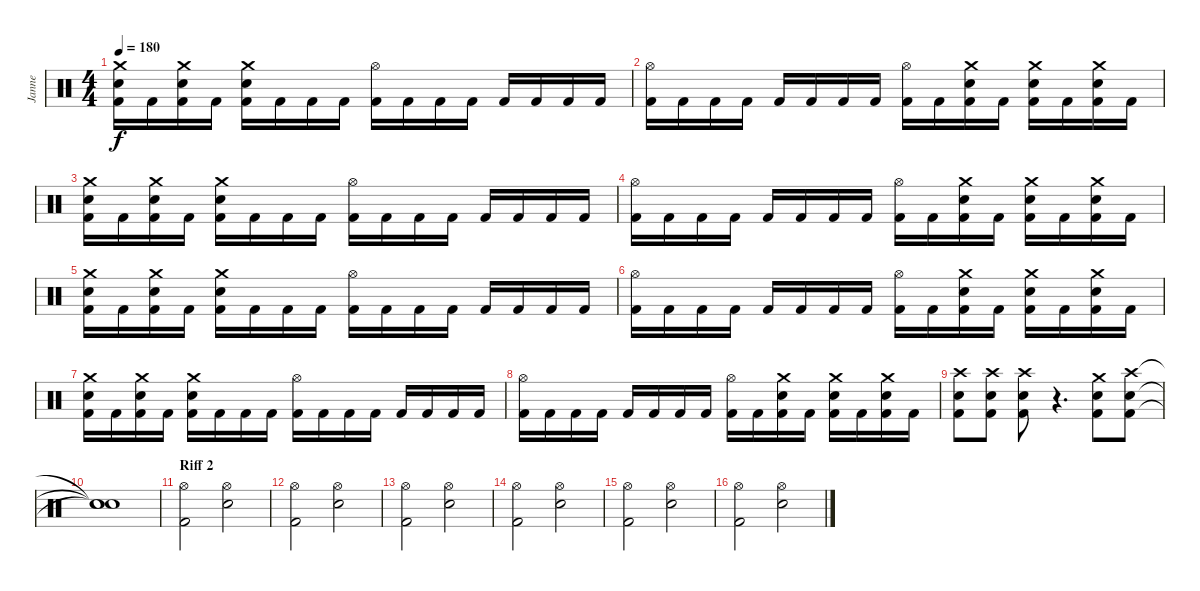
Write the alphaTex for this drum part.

\track ("Janne" "Janne") {instrument percussion}
\staff {score}
\articulation defaults
\ts (4 4)
\tempo 180
\clef neutral
\ks c
("Crash medium (hit)" "Electric Snare (hit)" "Kick (hit) 2").16{dy f} "Kick (hit) 2".16 ("Crash medium (hit)" "Electric Snare (hit)" "Kick (hit) 2").16 "Kick (hit) 2".16 ("Crash medium (hit)" "Electric Snare (hit)" "Kick (hit) 2").16 "Kick (hit) 2".16 "Kick (hit) 2".16 "Kick (hit) 2".16 ("Hi-Hat (open)" "Kick (hit) 2").16 "Kick (hit) 2".16 "Kick (hit) 2".16 "Kick (hit) 2".16 "Kick (hit) 2".16 "Kick (hit) 2".16 "Kick (hit) 2".16 "Kick (hit) 2".16 |
("Hi-Hat (open)" "Kick (hit) 2").16 "Kick (hit) 2".16 "Kick (hit) 2".16 "Kick (hit) 2".16 "Kick (hit) 2".16 "Kick (hit) 2".16 "Kick (hit) 2".16 "Kick (hit) 2".16 ("Hi-Hat (open)" "Kick (hit) 2").16 "Kick (hit) 2".16 ("Crash medium (hit)" "Electric Snare (hit)" "Kick (hit) 2").16 "Kick (hit) 2".16 ("Crash medium (hit)" "Electric Snare (hit)" "Kick (hit) 2").16 "Kick (hit) 2".16 ("Crash medium (hit)" "Electric Snare (hit)" "Kick (hit) 2").16 "Kick (hit) 2".16 |
("Crash medium (hit)" "Electric Snare (hit)" "Kick (hit) 2").16 "Kick (hit) 2".16 ("Crash medium (hit)" "Electric Snare (hit)" "Kick (hit) 2").16 "Kick (hit) 2".16 ("Crash medium (hit)" "Electric Snare (hit)" "Kick (hit) 2").16 "Kick (hit) 2".16 "Kick (hit) 2".16 "Kick (hit) 2".16 ("Hi-Hat (open)" "Kick (hit) 2").16 "Kick (hit) 2".16 "Kick (hit) 2".16 "Kick (hit) 2".16 "Kick (hit) 2".16 "Kick (hit) 2".16 "Kick (hit) 2".16 "Kick (hit) 2".16 |
("Hi-Hat (open)" "Kick (hit) 2").16 "Kick (hit) 2".16 "Kick (hit) 2".16 "Kick (hit) 2".16 "Kick (hit) 2".16 "Kick (hit) 2".16 "Kick (hit) 2".16 "Kick (hit) 2".16 ("Hi-Hat (open)" "Kick (hit) 2").16 "Kick (hit) 2".16 ("Crash medium (hit)" "Electric Snare (hit)" "Kick (hit) 2").16 "Kick (hit) 2".16 ("Crash medium (hit)" "Electric Snare (hit)" "Kick (hit) 2").16 "Kick (hit) 2".16 ("Crash medium (hit)" "Electric Snare (hit)" "Kick (hit) 2").16 "Kick (hit) 2".16 |
("Crash medium (hit)" "Electric Snare (hit)" "Kick (hit) 2").16 "Kick (hit) 2".16 ("Crash medium (hit)" "Electric Snare (hit)" "Kick (hit) 2").16 "Kick (hit) 2".16 ("Crash medium (hit)" "Electric Snare (hit)" "Kick (hit) 2").16 "Kick (hit) 2".16 "Kick (hit) 2".16 "Kick (hit) 2".16 ("Hi-Hat (open)" "Kick (hit) 2").16 "Kick (hit) 2".16 "Kick (hit) 2".16 "Kick (hit) 2".16 "Kick (hit) 2".16 "Kick (hit) 2".16 "Kick (hit) 2".16 "Kick (hit) 2".16 |
("Hi-Hat (open)" "Kick (hit) 2").16 "Kick (hit) 2".16 "Kick (hit) 2".16 "Kick (hit) 2".16 "Kick (hit) 2".16 "Kick (hit) 2".16 "Kick (hit) 2".16 "Kick (hit) 2".16 ("Hi-Hat (open)" "Kick (hit) 2").16 "Kick (hit) 2".16 ("Crash medium (hit)" "Electric Snare (hit)" "Kick (hit) 2").16 "Kick (hit) 2".16 ("Crash medium (hit)" "Electric Snare (hit)" "Kick (hit) 2").16 "Kick (hit) 2".16 ("Crash medium (hit)" "Electric Snare (hit)" "Kick (hit) 2").16 "Kick (hit) 2".16 |
("Crash medium (hit)" "Electric Snare (hit)" "Kick (hit) 2").16 "Kick (hit) 2".16 ("Crash medium (hit)" "Electric Snare (hit)" "Kick (hit) 2").16 "Kick (hit) 2".16 ("Crash medium (hit)" "Electric Snare (hit)" "Kick (hit) 2").16 "Kick (hit) 2".16 "Kick (hit) 2".16 "Kick (hit) 2".16 ("Hi-Hat (open)" "Kick (hit) 2").16 "Kick (hit) 2".16 "Kick (hit) 2".16 "Kick (hit) 2".16 "Kick (hit) 2".16 "Kick (hit) 2".16 "Kick (hit) 2".16 "Kick (hit) 2".16 |
("Hi-Hat (open)" "Kick (hit) 2").16 "Kick (hit) 2".16 "Kick (hit) 2".16 "Kick (hit) 2".16 "Kick (hit) 2".16 "Kick (hit) 2".16 "Kick (hit) 2".16 "Kick (hit) 2".16 ("Hi-Hat (open)" "Kick (hit) 2").16 "Kick (hit) 2".16 ("Crash medium (hit)" "Electric Snare (hit)" "Kick (hit) 2").16 "Kick (hit) 2".16 ("Crash medium (hit)" "Electric Snare (hit)" "Kick (hit) 2").16 "Kick (hit) 2".16 ("Crash medium (hit)" "Electric Snare (hit)" "Kick (hit) 2").16 "Kick (hit) 2".16 |
("Crash high (hit)" "Electric Snare (hit)" "Kick (hit) 2").8 ("Crash high (hit)" "Electric Snare (hit)" "Kick (hit) 2").8 ("Crash high (hit)" "Electric Snare (hit)" "Kick (hit) 2").8 r.4{d} ("Crash medium (hit)" "Electric Snare (hit)" "Kick (hit) 2").8 ("Crash high (hit)" "Electric Snare (hit)" "Kick (hit) 2").8 |
("Snare (hit)"{t} "Snare (hit)"{t} "Snare (hit)"{t}).1 |
\section ("" "Riff 2")
("Hi-Hat (open)" "Kick (hit) 2").2 ("Hi-Hat (open)" "Electric Snare (hit)").2 |
("Hi-Hat (open)" "Kick (hit) 2").2 ("Hi-Hat (open)" "Electric Snare (hit)").2 |
("Hi-Hat (open)" "Kick (hit) 2").2 ("Hi-Hat (open)" "Electric Snare (hit)").2 |
("Hi-Hat (open)" "Kick (hit) 2").2 ("Hi-Hat (open)" "Electric Snare (hit)").2 |
("Hi-Hat (open)" "Kick (hit) 2").2 ("Hi-Hat (open)" "Electric Snare (hit)").2 |
("Hi-Hat (open)" "Kick (hit) 2").2 ("Hi-Hat (open)" "Electric Snare (hit)").2
